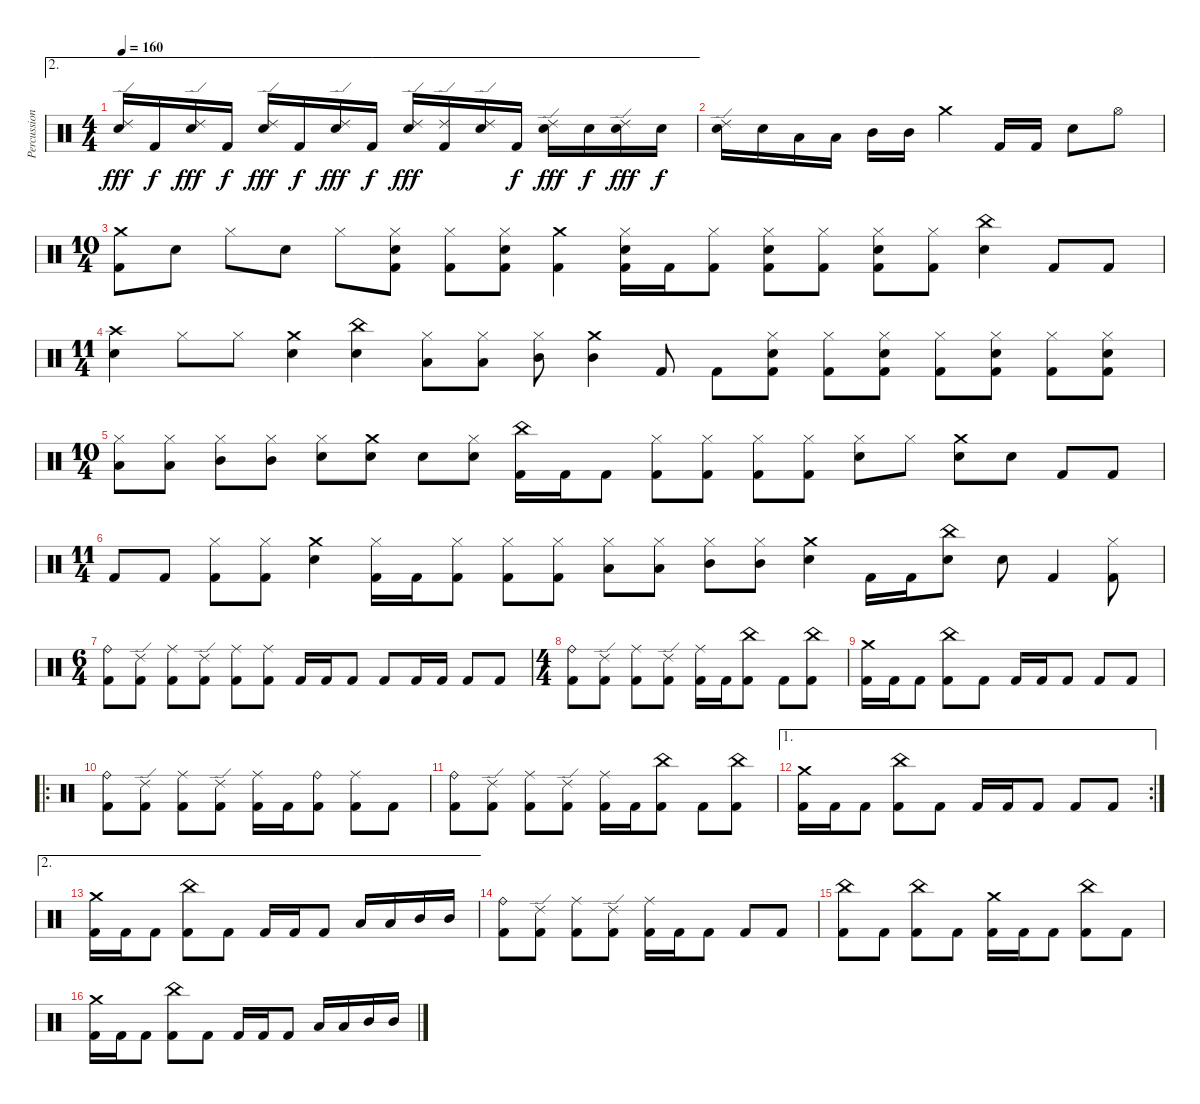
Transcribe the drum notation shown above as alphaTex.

\track ("Percussion" "Percussion") {instrument percussion}
\staff {score}
\articulation defaults
\ae 2
\ts (4 4)
\tempo 160
\clef neutral
\ks c
("Ride (edge) 2" "Electric Snare (hit)").16{dy fff} "Kick (hit) 2".16{dy f} ("Ride (edge) 2" "Electric Snare (hit)").16{dy fff} "Kick (hit) 2".16{dy f} ("Ride (edge) 2" "Electric Snare (hit)").16{dy fff} "Kick (hit) 2".16{dy f} ("Ride (edge) 2" "Electric Snare (hit)").16{dy fff} "Kick (hit) 2".16{dy f} ("Ride (edge) 2" "Electric Snare (hit)").16{dy fff} ("Ride (edge) 2" "Kick (hit) 2").16 ("Ride (edge) 2" "Electric Snare (hit)").16 "Kick (hit) 2".16{dy f} ("Ride (edge) 2" "Electric Snare (hit)").16{dy fff} "Electric Snare (hit)".16{dy f} ("Ride (edge) 2" "Electric Snare (hit)").16{dy fff} "Electric Snare (hit)".16{dy f} |
("Ride (edge) 2" "Electric Snare (hit)").16 "Electric Snare (hit)".16 "Low Tom (hit)".16 "Low Tom (hit)".16 "Mid Tom (hit)".16 "Mid Tom (hit)".16 "Crash medium (hit)".4 "Kick (hit) 2".16 "Kick (hit) 2".16 "Electric Snare (hit)".8 "Hi-Hat (open)".8 |
\ts (10 4)
("Crash medium (hit)" "Kick (hit) 2").8 "Electric Snare (hit)".8 "Hi-Hat (closed)".8 "Electric Snare (hit)".8 "Hi-Hat (closed)".8 ("Hi-Hat (closed)" "Electric Snare (hit)" "Kick (hit) 2").8 ("Hi-Hat (closed)" "Kick (hit) 2").8 ("Hi-Hat (closed)" "Electric Snare (hit)" "Kick (hit) 2").8 ("Crash medium (hit)" "Kick (hit) 2").4 ("Hi-Hat (closed)" "Electric Snare (hit)" "Kick (hit) 2").16 "Kick (hit) 2".16 ("Hi-Hat (closed)" "Kick (hit) 2").8 ("Hi-Hat (closed)" "Electric Snare (hit)" "Kick (hit) 2").8 ("Hi-Hat (closed)" "Kick (hit) 2").8 ("Hi-Hat (closed)" "Electric Snare (hit)" "Kick (hit) 2").8 ("Hi-Hat (closed)" "Kick (hit) 2").8 ("China (hit)" "Electric Snare (hit)").4 "Kick (hit) 2".8 "Kick (hit) 2".8 |
\ts (11 4)
("Crash high (hit)" "Electric Snare (hit)").4 "Hi-Hat (closed)".8 "Hi-Hat (closed)".8 ("Crash medium (hit)" "Electric Snare (hit)").4 ("China (hit)" "Electric Snare (hit)").4 ("Hi-Hat (closed)" "Low Tom (hit)").8 ("Hi-Hat (closed)" "Low Tom (hit)").8 ("Hi-Hat (closed)" "Mid Tom (hit)").8 ("Crash medium (hit)" "Mid Tom (hit)").4 "Kick (hit) 2".8 "Kick (hit) 2".8 ("Hi-Hat (closed)" "Electric Snare (hit)" "Kick (hit) 2").8 ("Hi-Hat (closed)" "Kick (hit) 2").8 ("Hi-Hat (closed)" "Electric Snare (hit)" "Kick (hit) 2").8 ("Hi-Hat (closed)" "Kick (hit) 2").8 ("Hi-Hat (closed)" "Electric Snare (hit)" "Kick (hit) 2").8 ("Hi-Hat (closed)" "Kick (hit) 2").8 ("Hi-Hat (closed)" "Electric Snare (hit)" "Kick (hit) 2").8 |
\ts (10 4)
("Hi-Hat (closed)" "Low Tom (hit)").8 ("Hi-Hat (closed)" "Low Tom (hit)").8 ("Hi-Hat (closed)" "Mid Tom (hit)").8 ("Hi-Hat (closed)" "Mid Tom (hit)").8 ("Hi-Hat (closed)" "Electric Snare (hit)").8 ("Crash medium (hit)" "Electric Snare (hit)").8 "Electric Snare (hit)".8 ("Hi-Hat (closed)" "Electric Snare (hit)").8 ("China (hit)" "Kick (hit) 2").16 "Kick (hit) 2".16 "Kick (hit) 2".8 ("Hi-Hat (closed)" "Kick (hit) 2").8 ("Hi-Hat (closed)" "Kick (hit) 2").8 ("Hi-Hat (closed)" "Kick (hit) 2").8 ("Hi-Hat (closed)" "Kick (hit) 2").8 ("Hi-Hat (closed)" "Electric Snare (hit)").8 "Hi-Hat (closed)".8 ("Crash medium (hit)" "Electric Snare (hit)").8 "Electric Snare (hit)".8 "Kick (hit) 2".8 "Kick (hit) 2".8 |
\ts (11 4)
"Kick (hit) 2".8 "Kick (hit) 2".8 ("Hi-Hat (closed)" "Kick (hit) 2").8 ("Hi-Hat (closed)" "Kick (hit) 2").8 ("Crash medium (hit)" "Electric Snare (hit)").4 ("Hi-Hat (closed)" "Kick (hit) 2").16 "Kick (hit) 2".16 ("Hi-Hat (closed)" "Kick (hit) 2").8 ("Hi-Hat (closed)" "Kick (hit) 2").8 ("Hi-Hat (closed)" "Kick (hit) 2").8 ("Hi-Hat (closed)" "Low Tom (hit)").8 ("Hi-Hat (closed)" "Low Tom (hit)").8 ("Hi-Hat (closed)" "Mid Tom (hit)").8 ("Hi-Hat (closed)" "Mid Tom (hit)").8 ("Crash medium (hit)" "Electric Snare (hit)").4 "Kick (hit) 2".16 "Kick (hit) 2".16 ("China (hit)" "Electric Snare (hit)").8 "Electric Snare (hit)".8 "Kick (hit) 2".4 ("Hi-Hat (closed)" "Kick (hit) 2").8 |
\ts (6 4)
("Ride (bell)" "Kick (hit) 2").8 ("Ride (edge) 2" "Kick (hit) 2").8 ("Ride (middle)" "Kick (hit) 2").8 ("Ride (edge) 2" "Kick (hit) 2").8 ("Ride (middle)" "Kick (hit) 2").8 ("Ride (middle)" "Kick (hit) 2").8 "Kick (hit) 2".16 "Kick (hit) 2".16 "Kick (hit) 2".8 "Kick (hit) 2".8 "Kick (hit) 2".16 "Kick (hit) 2".16 "Kick (hit) 2".8 "Kick (hit) 2".8 |
\ts (4 4)
("Ride (bell)" "Kick (hit) 2").8 ("Ride (edge) 2" "Kick (hit) 2").8 ("Ride (middle)" "Kick (hit) 2").8 ("Ride (edge) 2" "Kick (hit) 2").8 ("Ride (middle)" "Kick (hit) 2").16 "Kick (hit) 2".16 ("China (hit)" "Kick (hit) 2").8 "Kick (hit) 2".8 ("China (hit)" "Kick (hit) 2").8 |
("Crash medium (hit)" "Kick (hit) 2").16 "Kick (hit) 2".16 "Kick (hit) 2".8 ("China (hit)" "Kick (hit) 2").8 "Kick (hit) 2".8 "Kick (hit) 2".16 "Kick (hit) 2".16 "Kick (hit) 2".8 "Kick (hit) 2".8 "Kick (hit) 2".8 |
\ro
("Ride (bell)" "Kick (hit) 2").8 ("Ride (edge) 2" "Kick (hit) 2").8 ("Ride (middle)" "Kick (hit) 2").8 ("Ride (edge) 2" "Kick (hit) 2").8 ("Ride (middle)" "Kick (hit) 2").16 "Kick (hit) 2".16 ("Ride (bell)" "Kick (hit) 2").8 ("Ride (middle)" "Kick (hit) 2").8 "Kick (hit) 2".8 |
("Ride (bell)" "Kick (hit) 2").8 ("Ride (edge) 2" "Kick (hit) 2").8 ("Ride (middle)" "Kick (hit) 2").8 ("Ride (edge) 2" "Kick (hit) 2").8 ("Ride (middle)" "Kick (hit) 2").16 "Kick (hit) 2".16 ("China (hit)" "Kick (hit) 2").8 "Kick (hit) 2".8 ("China (hit)" "Kick (hit) 2").8 |
\ae 1
\rc 2
("Crash medium (hit)" "Kick (hit) 2").16 "Kick (hit) 2".16 "Kick (hit) 2".8 ("China (hit)" "Kick (hit) 2").8 "Kick (hit) 2".8 "Kick (hit) 2".16 "Kick (hit) 2".16 "Kick (hit) 2".8 "Kick (hit) 2".8 "Kick (hit) 2".8 |
\ae 2
("Crash medium (hit)" "Kick (hit) 2").16 "Kick (hit) 2".16 "Kick (hit) 2".8 ("China (hit)" "Kick (hit) 2").8 "Kick (hit) 2".8 "Kick (hit) 2".16 "Kick (hit) 2".16 "Kick (hit) 2".8 "Low Tom (hit)".16 "Low Tom (hit)".16 "Mid Tom (hit)".16 "Mid Tom (hit)".16 |
("Ride (bell)" "Kick (hit) 2").8 ("Ride (edge) 2" "Kick (hit) 2").8 ("Ride (middle)" "Kick (hit) 2").8 ("Ride (edge) 2" "Kick (hit) 2").8 ("Ride (middle)" "Kick (hit) 2").16 "Kick (hit) 2".16 "Kick (hit) 2".8 "Kick (hit) 2".8 "Kick (hit) 2".8 |
("China (hit)" "Kick (hit) 2").8 "Kick (hit) 2".8 ("China (hit)" "Kick (hit) 2").8 "Kick (hit) 2".8 ("Crash medium (hit)" "Kick (hit) 2").16 "Kick (hit) 2".16 "Kick (hit) 2".8 ("China (hit)" "Kick (hit) 2").8 "Kick (hit) 2".8 |
("Crash medium (hit)" "Kick (hit) 2").16 "Kick (hit) 2".16 "Kick (hit) 2".8 ("China (hit)" "Kick (hit) 2").8 "Kick (hit) 2".8 "Kick (hit) 2".16 "Kick (hit) 2".16 "Kick (hit) 2".8 "Low Tom (hit)".16 "Low Tom (hit)".16 "Mid Tom (hit)".16 "Mid Tom (hit)".16
